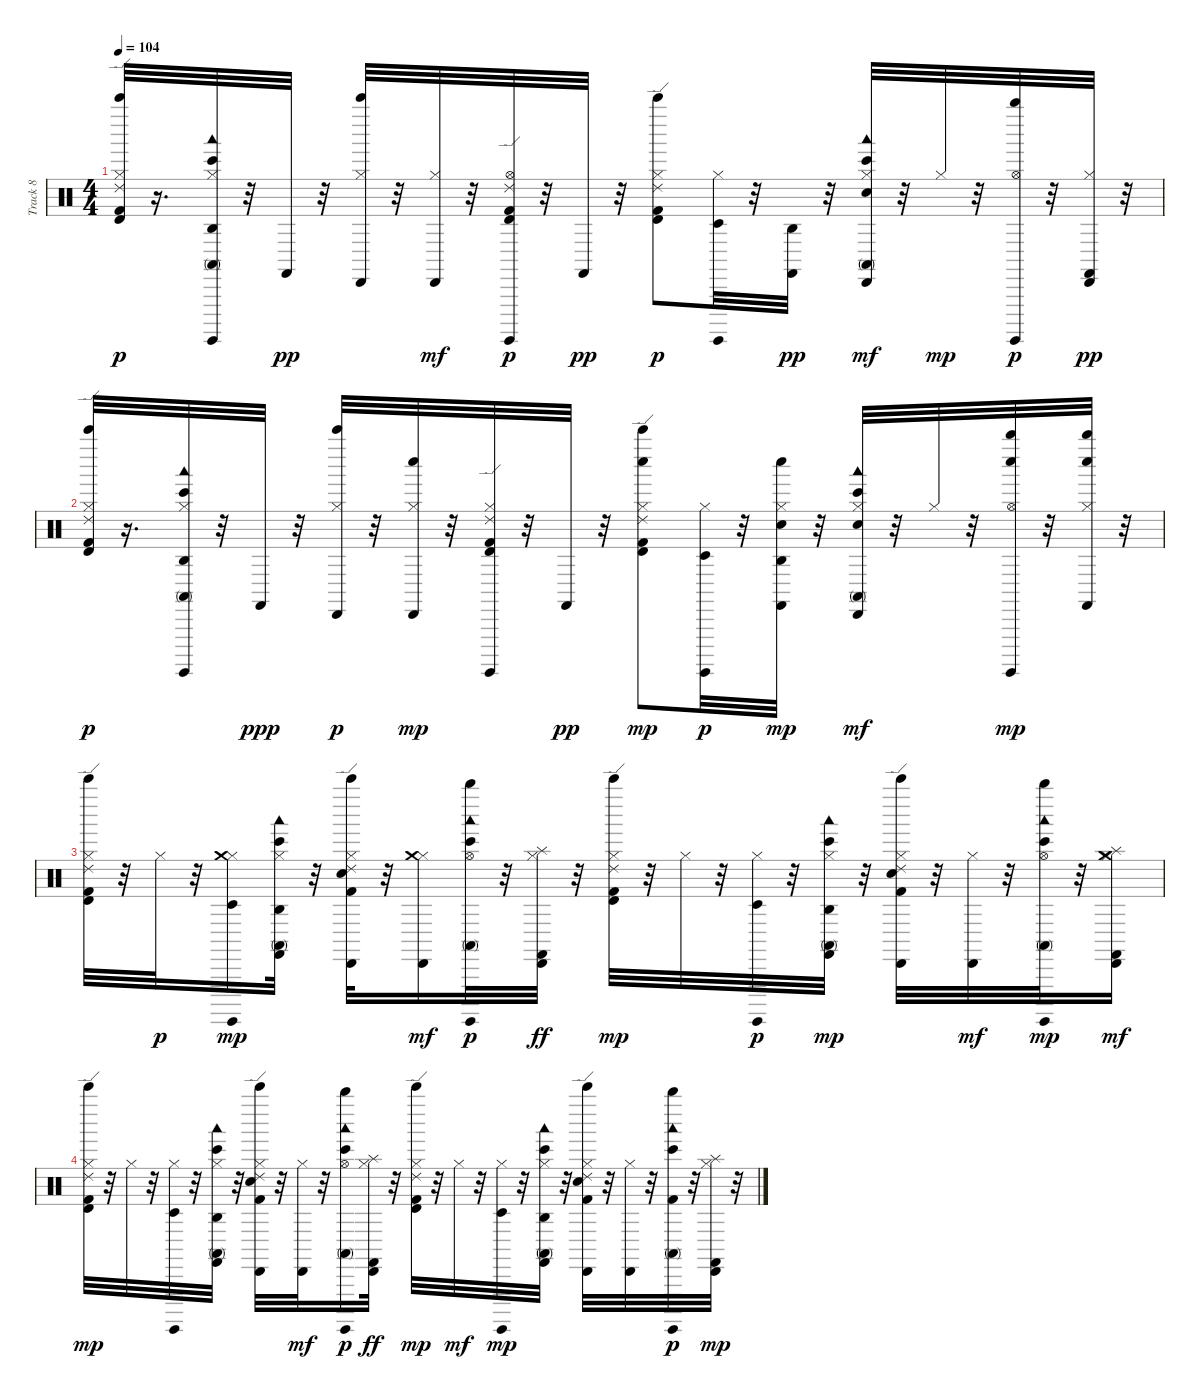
\track ("Track 8" "Track 8") {instrument percussion}
\staff {score}
\articulation defaults
\ts (4 4)
\tempo 104
\clef neutral
\ks c
("Ride (edge) 2" "Timbale high (hit)" "Kick (hit) 2" "Hi-Hat (closed)" "Bell Tree (hit)").32{dy p} r.16{d} ("Bongo High (hit)" "Agogo high (hit)" "Conga high (mute)" "Hi-Hat (closed)" "Woodblock low (hit)" "Surdo (hit)").32 r.32 "Castanets (hit)".32{dy pp} r.32 ("Cabasa (hit)" "Hi-Hat (closed)" "Bell Tree (hit)").32 r.32 ("Cabasa (hit)" "Hi-Hat (closed)").32{dy mf} r.32 ("Ride (edge) 2" "Timbale high (hit)" "Kick (hit) 2" "Hi-Hat (open)" "Surdo (hit)").32{dy p} r.32 "Castanets (hit)".32{dy pp} r.32 ("Ride (edge) 2" "Timbale high (hit)" "Kick (hit) 2" "Hi-Hat (closed)" "Bell Tree (hit)").8{dy p} ("Timbale low (hit)" "Hi-Hat (closed)" "Surdo (hit)").32 r.32 ("Agogo high (hit)" "Castanets (hit)").32{dy pp} r.32 ("Conga high (mute)" "Cabasa (hit)" "Bongo High (hit)" "Electric Snare (hit)" "Hi-Hat (closed)" "Woodblock low (hit)").32{dy mf} r.32 "Hi-Hat (closed)".32{dy mp} r.32 ("Whistle high (hit)" "Hi-Hat (open)" "Surdo (hit)").32{dy p} r.32 ("Cabasa (hit)" "Hi-Hat (closed)" "Castanets (hit)").32{dy pp} r.32 |
("Ride (edge) 2" "Timbale high (hit)" "Kick (hit) 2" "Hi-Hat (closed)" "Bell Tree (hit)").32{dy p} r.16{d} ("Conga high (mute)" "Agogo high (hit)" "Bongo High (hit)" "Hi-Hat (closed)" "Woodblock low (hit)" "Surdo (hit)").32 r.32 "Castanets (hit)".32{dy ppp} r.32 ("Cabasa (hit)" "Hi-Hat (closed)" "Bell Tree (hit)").32{dy p} r.32 ("Cabasa (hit)" "Hi-Hat (closed)" "Whistle low (hit)").32{dy mp} r.32 ("Ride (edge) 2" "Timbale high (hit)" "Kick (hit) 2" "Hi-Hat (closed)" "Surdo (hit)").32 r.32 "Castanets (hit)".32{dy pp} r.32 ("Ride (edge) 2" "Timbale high (hit)" "Kick (hit) 2" "Hi-Hat (closed)" "Bell Tree (hit)" "Whistle low (hit)").8{dy mp} ("Timbale low (hit)" "Hi-Hat (closed)" "Surdo (hit)").32{dy p} r.32 ("Agogo high (hit)" "Electric Snare (hit)" "Hi-Hat (closed)" "Castanets (hit)" "Whistle low (hit)").32{dy mp} r.32 ("Bongo High (hit)" "Cabasa (hit)" "Conga high (mute)" "Hi-Hat (closed)" "Electric Snare (hit)" "Woodblock low (hit)").32{dy mf} r.32 "Hi-Hat (closed)".32 r.32 ("Whistle high (hit)" "Hi-Hat (open)" "Surdo (hit)" "Whistle low (hit)").32{dy mp} r.32 ("Whistle high (hit)" "Hi-Hat (closed)" "Castanets (hit)" "Whistle low (hit)").32 r.32 |
("Timbale high (hit)" "Ride (edge) 2" "Kick (hit) 2" "Bell Tree (hit)" "Hi-Hat (closed)").32 r.32 "Hi-Hat (closed)".32{dy p} r.32 ("Timbale low (hit)" "Surdo (hit)" "Hi-Hat (closed)" "Crash medium (hit)").16{dy mp} ("Agogo high (hit)" "Bongo High (hit)" "Conga high (mute)" "Woodblock low (hit)" "Castanets (hit)" "Hi-Hat (closed)").32 r.32 ("Cabasa (hit)" "Ride (edge) 2" "Kick (hit) 2" "Electric Snare (hit)" "Bell Tree (hit)" "Hi-Hat (closed)").32 r.32 ("Cabasa (hit)" "Hi-Hat (closed)" "Crash medium (hit)").16{dy mf} ("Whistle high (hit)" "Bongo High (hit)" "Conga high (mute)" "Woodblock low (hit)" "Surdo (hit)" "Hi-Hat (open)").32{dy p} r.32 ("Cabasa (hit)" "Castanets (hit)" "Hi-Hat (closed)" "Splash (hit)").32{dy ff} r.32 ("Timbale high (hit)" "Ride (edge) 2" "Kick (hit) 2" "Bell Tree (hit)" "Hi-Hat (closed)").32{dy mp} r.32 "Hi-Hat (closed)".32 r.32 ("Timbale low (hit)" "Surdo (hit)" "Hi-Hat (closed)").32{dy p} r.32 ("Agogo high (hit)" "Bongo High (hit)" "Conga high (mute)" "Woodblock low (hit)" "Castanets (hit)" "Hi-Hat (closed)").32{dy mp} r.32 ("Cabasa (hit)" "Ride (edge) 2" "Kick (hit) 2" "Electric Snare (hit)" "Bell Tree (hit)" "Hi-Hat (closed)").32 r.32 ("Cabasa (hit)" "Hi-Hat (closed)").32{dy mf} r.32 ("Whistle high (hit)" "Bongo High (hit)" "Conga high (mute)" "Woodblock low (hit)" "Surdo (hit)" "Hi-Hat (open)").32{dy mp} r.32 ("Cabasa (hit)" "Castanets (hit)" "Hi-Hat (closed)" "Splash (hit)" "Crash medium (hit)").16{dy mf} |
("Timbale high (hit)" "Ride (edge) 2" "Kick (hit) 2" "Bell Tree (hit)" "Hi-Hat (closed)").32{dy mp} r.32 "Hi-Hat (closed)".32 r.32 ("Timbale low (hit)" "Surdo (hit)" "Hi-Hat (closed)").32 r.32 ("Agogo high (hit)" "Bongo High (hit)" "Conga high (mute)" "Woodblock low (hit)" "Castanets (hit)" "Hi-Hat (closed)").32 r.32 ("Cabasa (hit)" "Ride (edge) 2" "Kick (hit) 2" "Electric Snare (hit)" "Bell Tree (hit)" "Hi-Hat (closed)").32 r.32 ("Cabasa (hit)" "Hi-Hat (closed)").32{dy mf} r.32 ("Whistle high (hit)" "Bongo High (hit)" "Conga high (mute)" "Woodblock low (hit)" "Surdo (hit)" "Hi-Hat (open)").16{dy p} ("Cabasa (hit)" "Castanets (hit)" "Hi-Hat (closed)" "Splash (hit)").32{dy ff} r.32 ("Timbale high (hit)" "Ride (edge) 2" "Kick (hit) 2" "Bell Tree (hit)" "Hi-Hat (closed)").32{dy mp} r.32 "Hi-Hat (closed)".32{dy mf} r.32 ("Timbale low (hit)" "Surdo (hit)" "Hi-Hat (closed)").32{dy mp} r.32 ("Agogo high (hit)" "Bongo High (hit)" "Conga high (mute)" "Woodblock low (hit)" "Castanets (hit)" "Hi-Hat (closed)").32 r.32 ("Cabasa (hit)" "Ride (edge) 2" "Kick (hit) 2" "Electric Snare (hit)" "Bell Tree (hit)" "Hi-Hat (closed)").32 r.32 ("Cabasa (hit)" "Hi-Hat (closed)").32 r.32 ("Whistle high (hit)" "Bongo High (hit)" "Conga high (mute)" "Kick (hit) 2" "Woodblock low (hit)" "Surdo (hit)").32{dy p} r.32 ("Cabasa (hit)" "Castanets (hit)" "Hi-Hat (closed)" "Splash (hit)").32{dy mp} r.32
